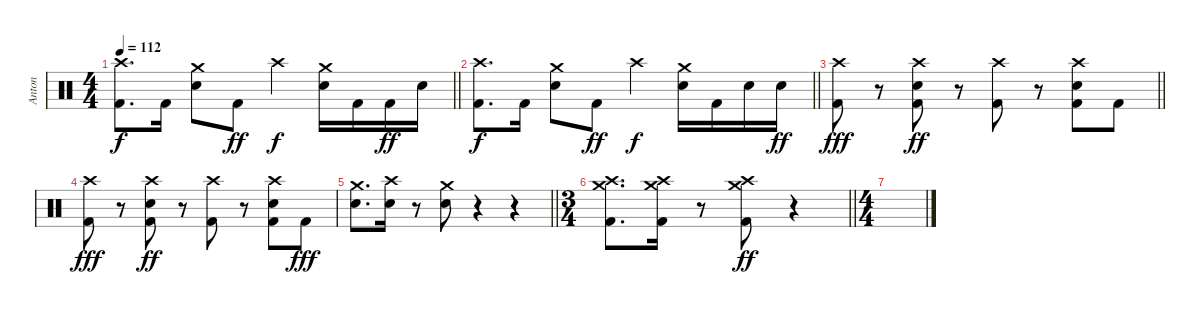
\track ("Anton" "Anton") {instrument percussion}
\staff
\articulation defaults
\ts (4 4)
\tempo 112
\clef neutral
\barLineRight lightlight
\ks c
("Crash high (hit)" "Kick (hit) 2").8{d dy f} "Kick (hit) 2".16 ("Crash medium (hit)" "Electric Snare (hit)").8 "Kick (hit) 2".8{dy ff} "Crash high (hit)".4{dy f} ("Crash medium (hit)" "Electric Snare (hit)").16 "Kick (hit) 2".16 "Kick (hit) 2".16{dy ff} "Electric Snare (hit)".16 |
\barLineRight lightlight
("Crash high (hit)" "Kick (hit) 2").8{d dy f} "Kick (hit) 2".16 ("Crash medium (hit)" "Electric Snare (hit)").8 "Kick (hit) 2".8{dy ff} "Crash high (hit)".4{dy f} ("Crash medium (hit)" "Electric Snare (hit)").16 "Kick (hit) 2".16 "Electric Snare (hit)".16 "Electric Snare (hit)".16{dy ff} |
\barLineRight lightlight
("Crash high (hit)" "Kick (hit) 2").8{dy fff} r.8 ("Crash high (hit)" "Electric Snare (hit)" "Kick (hit) 2").8{dy ff} r.8 ("Crash high (hit)" "Kick (hit) 2").8 r.8 ("Crash high (hit)" "Electric Snare (hit)" "Kick (hit) 2").8 "Kick (hit) 2".8 |
("Crash high (hit)" "Kick (hit) 2").8{dy fff} r.8 ("Crash high (hit)" "Electric Snare (hit)" "Kick (hit) 2").8{dy ff} r.8 ("Crash high (hit)" "Kick (hit) 2").8 r.8 ("Crash high (hit)" "Electric Snare (hit)" "Kick (hit) 2").8 "Kick (hit) 2".8{dy fff} |
\barLineRight lightlight
("Crash medium (hit)" "Electric Snare (hit)").8{d} ("Crash high (hit)" "Electric Snare (hit)").16 r.8 ("Crash medium (hit)" "Electric Snare (hit)").8 r.4 r.4 |
\ts (3 4)
\barLineRight lightlight
("Crash high (hit)" "Crash medium (hit)" "Kick (hit) 2").8{d} ("Crash high (hit)" "Crash medium (hit)" "Kick (hit) 2").16 r.8 ("Crash high (hit)" "Crash medium (hit)" "Kick (hit) 2").8{dy ff} r.4 |
\ts (4 4)
